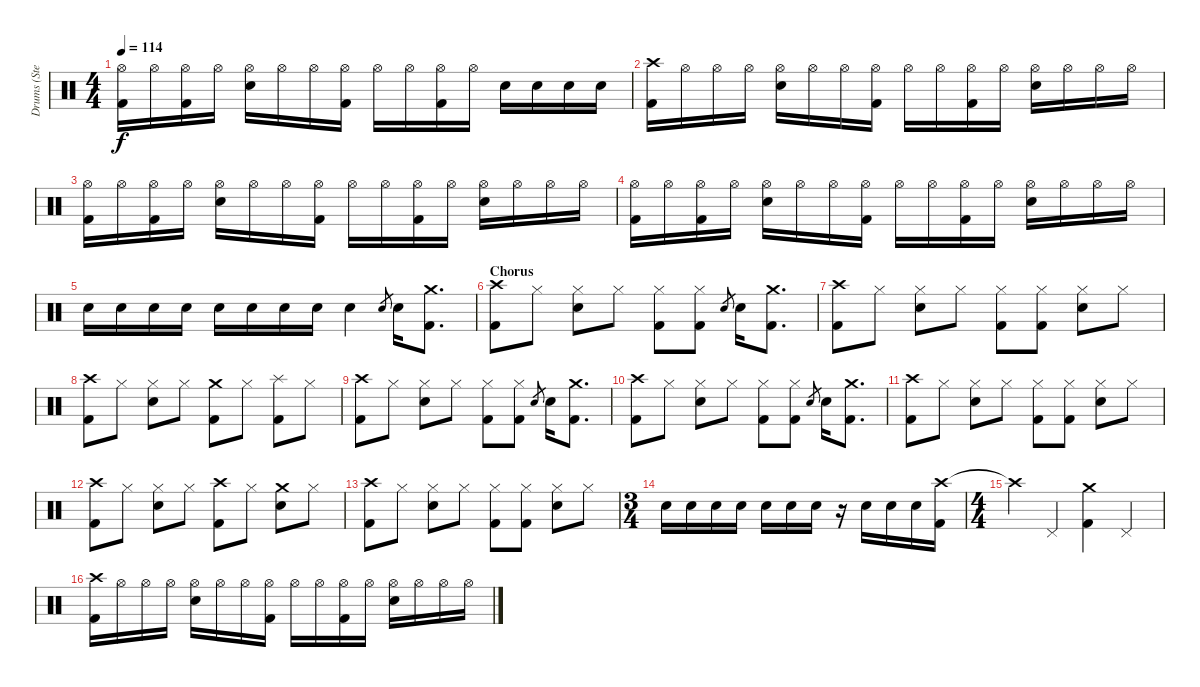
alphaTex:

\track ("Drums (Steven)" "Drums (Ste") {instrument percussion}
\staff {score}
\articulation defaults
\ts (4 4)
\tempo 114
\clef neutral
\ks c
("Hi-Hat (open)" "Kick (hit) 2").16{dy f} "Hi-Hat (open)".16 ("Hi-Hat (open)" "Kick (hit) 2").16 "Hi-Hat (open)".16 ("Hi-Hat (open)" "Snare (hit) 2").16 "Hi-Hat (open)".16 "Hi-Hat (open)".16 ("Hi-Hat (open)" "Kick (hit) 2").16 "Hi-Hat (open)".16 "Hi-Hat (open)".16 ("Hi-Hat (open)" "Kick (hit) 2").16 "Hi-Hat (open)".16 "Snare (hit) 2".16 "Snare (hit) 2".16 "Snare (hit) 2".16 "Snare (hit) 2".16 |
("Crash high (hit)" "Kick (hit) 2").16 "Hi-Hat (open)".16 "Hi-Hat (open)".16 "Hi-Hat (open)".16 ("Hi-Hat (open)" "Snare (hit) 2").16 "Hi-Hat (open)".16 "Hi-Hat (open)".16 ("Hi-Hat (open)" "Kick (hit) 2").16 "Hi-Hat (open)".16 "Hi-Hat (open)".16 ("Hi-Hat (open)" "Kick (hit) 2").16 "Hi-Hat (open)".16 ("Hi-Hat (open)" "Snare (hit) 2").16 "Hi-Hat (open)".16 "Hi-Hat (open)".16 "Hi-Hat (open)".16 |
("Hi-Hat (open)" "Kick (hit) 2").16 "Hi-Hat (open)".16 ("Hi-Hat (open)" "Kick (hit) 2").16 "Hi-Hat (open)".16 ("Hi-Hat (open)" "Snare (hit) 2").16 "Hi-Hat (open)".16 "Hi-Hat (open)".16 ("Hi-Hat (open)" "Kick (hit) 2").16 "Hi-Hat (open)".16 "Hi-Hat (open)".16 ("Hi-Hat (open)" "Kick (hit) 2").16 "Hi-Hat (open)".16 ("Hi-Hat (open)" "Snare (hit) 2").16 "Hi-Hat (open)".16 "Hi-Hat (open)".16 "Hi-Hat (open)".16 |
("Hi-Hat (open)" "Kick (hit) 2").16 "Hi-Hat (open)".16 ("Hi-Hat (open)" "Kick (hit) 2").16 "Hi-Hat (open)".16 ("Hi-Hat (open)" "Snare (hit) 2").16 "Hi-Hat (open)".16 "Hi-Hat (open)".16 ("Hi-Hat (open)" "Kick (hit) 2").16 "Hi-Hat (open)".16 "Hi-Hat (open)".16 ("Hi-Hat (open)" "Kick (hit) 2").16 "Hi-Hat (open)".16 ("Hi-Hat (open)" "Snare (hit) 2").16 "Hi-Hat (open)".16 "Hi-Hat (open)".16 "Hi-Hat (open)".16 |
"Snare (hit) 2".16 "Snare (hit) 2".16 "Snare (hit) 2".16 "Snare (hit) 2".16 "Snare (hit) 2".16 "Snare (hit) 2".16 "Snare (hit) 2".16 "Snare (hit) 2".16 "Snare (hit) 2".4 "Snare (hit) 2".8{gr} "Snare (hit) 2".16 ("Crash medium (hit)" "Kick (hit) 2").8{d} |
\section ("" "Chorus")
("Crash high (hit)" "Kick (hit) 2").8 "Hi-Hat (closed)".8 ("Hi-Hat (closed)" "Snare (hit) 2").8 "Hi-Hat (closed)".8 ("Hi-Hat (closed)" "Kick (hit) 2").8 ("Hi-Hat (closed)" "Kick (hit) 2").8 "Snare (hit) 2".8{gr} "Snare (hit) 2".16 ("Crash medium (hit)" "Kick (hit) 2").8{d} |
("Crash high (hit)" "Kick (hit) 2").8 "Hi-Hat (closed)".8 ("Hi-Hat (closed)" "Snare (hit) 2").8 "Hi-Hat (closed)".8 ("Hi-Hat (closed)" "Kick (hit) 2").8 ("Hi-Hat (closed)" "Kick (hit) 2").8 ("Hi-Hat (closed)" "Snare (hit) 2").8 "Hi-Hat (closed)".8 |
("Crash high (hit)" "Kick (hit) 2").8 "Hi-Hat (closed)".8 ("Hi-Hat (closed)" "Snare (hit) 2").8 "Hi-Hat (closed)".8 ("Crash medium (hit)" "Kick (hit) 2").8 "Hi-Hat (closed)".8 ("Splash (hit)" "Kick (hit) 2").8 "Hi-Hat (closed)".8 |
("Crash high (hit)" "Kick (hit) 2").8 "Hi-Hat (closed)".8 ("Hi-Hat (closed)" "Snare (hit) 2").8 "Hi-Hat (closed)".8 ("Hi-Hat (closed)" "Kick (hit) 2").8 ("Hi-Hat (closed)" "Kick (hit) 2").8 "Snare (hit) 2".8{gr} "Snare (hit) 2".16 ("Crash medium (hit)" "Kick (hit) 2").8{d} |
("Crash high (hit)" "Kick (hit) 2").8 "Hi-Hat (closed)".8 ("Hi-Hat (closed)" "Snare (hit) 2").8 "Hi-Hat (closed)".8 ("Hi-Hat (closed)" "Kick (hit) 2").8 ("Hi-Hat (closed)" "Kick (hit) 2").8 "Snare (hit) 2".8{gr} "Snare (hit) 2".16 ("Crash medium (hit)" "Kick (hit) 2").8{d} |
("Crash high (hit)" "Kick (hit) 2").8 "Hi-Hat (closed)".8 ("Hi-Hat (closed)" "Snare (hit) 2").8 "Hi-Hat (closed)".8 ("Hi-Hat (closed)" "Kick (hit) 2").8 ("Hi-Hat (closed)" "Kick (hit) 2").8 ("Hi-Hat (closed)" "Snare (hit) 2").8 "Hi-Hat (closed)".8 |
("Crash high (hit)" "Kick (hit) 2").8 "Hi-Hat (closed)".8 ("Hi-Hat (closed)" "Snare (hit) 2").8 "Hi-Hat (closed)".8 ("Crash high (hit)" "Kick (hit) 2").8 "Hi-Hat (closed)".8 ("Crash medium (hit)" "Snare (hit) 2").8 "Hi-Hat (closed)".8 |
("Crash high (hit)" "Kick (hit) 2").8 "Hi-Hat (closed)".8 ("Hi-Hat (closed)" "Snare (hit) 2").8 "Hi-Hat (closed)".8 ("Hi-Hat (closed)" "Kick (hit) 2").8 ("Hi-Hat (closed)" "Kick (hit) 2").8 ("Hi-Hat (closed)" "Snare (hit) 2").8 "Hi-Hat (closed)".8 |
\ts (3 4)
"Snare (hit) 2".16 "Snare (hit) 2".16 "Snare (hit) 2".16 "Snare (hit) 2".16 "Snare (hit) 2".16 "Snare (hit) 2".16 "Snare (hit) 2".16 r.16 "Snare (hit) 2".16 "Snare (hit) 2".16 "Snare (hit) 2".16 ("Crash high (hit)" "Kick (hit) 2").16 |
\ts (4 4)
"Crash high (hit)"{t}.4 "Pedal Hi-Hat (hit)".4 ("Crash medium (hit)" "Kick (hit) 2").4 "Pedal Hi-Hat (hit)".4 |
("Crash high (hit)" "Kick (hit) 2").16 "Hi-Hat (open)".16 "Hi-Hat (open)".16 "Hi-Hat (open)".16 ("Hi-Hat (open)" "Snare (hit) 2").16 "Hi-Hat (open)".16 "Hi-Hat (open)".16 ("Hi-Hat (open)" "Kick (hit) 2").16 "Hi-Hat (open)".16 "Hi-Hat (open)".16 ("Hi-Hat (open)" "Kick (hit) 2").16 "Hi-Hat (open)".16 ("Hi-Hat (open)" "Snare (hit) 2").16 "Hi-Hat (open)".16 "Hi-Hat (open)".16 "Hi-Hat (open)".16
